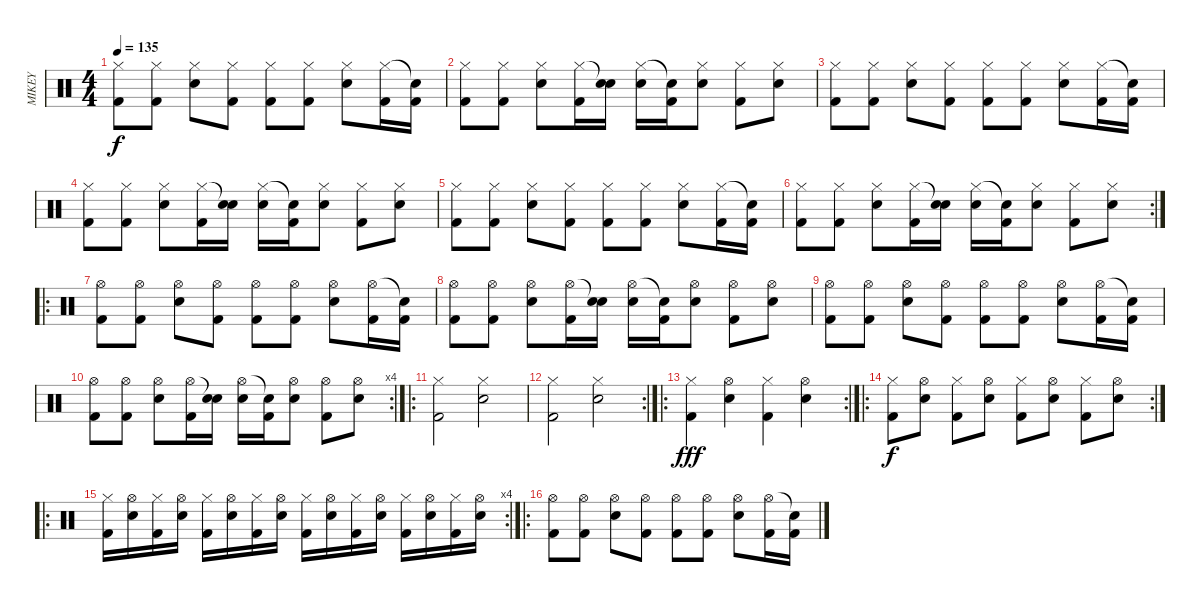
\track ("MIKEY" "MIKEY") {instrument percussion}
\staff {score}
\articulation defaults
\ts (4 4)
\tempo 135
\clef neutral
\ks c
("Hi-Hat (closed)" "Kick (hit) 2").8{dy f} ("Hi-Hat (closed)" "Kick (hit) 2").8 ("Hi-Hat (closed)" "Electric Snare (hit)").8 ("Hi-Hat (closed)" "Kick (hit) 2").8 ("Hi-Hat (closed)" "Kick (hit) 2").8 ("Hi-Hat (closed)" "Kick (hit) 2").8 ("Hi-Hat (closed)" "Electric Snare (hit)").8 ("Hi-Hat (closed)" "Kick (hit) 2").16 ("Snare (hit)"{t} "Kick (hit) 2").16 |
("Hi-Hat (closed)" "Kick (hit) 2").8 ("Hi-Hat (closed)" "Kick (hit) 2").8 ("Hi-Hat (closed)" "Electric Snare (hit)").8 ("Hi-Hat (closed)" "Kick (hit) 2").16 ("Snare (hit)"{t} "Electric Snare (hit)").16 ("Hi-Hat (closed)" "Electric Snare (hit)").16 ("Snare (hit)"{t} "Kick (hit) 2").16 ("Hi-Hat (closed)" "Electric Snare (hit)").8 ("Hi-Hat (closed)" "Kick (hit) 2").8 ("Hi-Hat (closed)" "Electric Snare (hit)").8 |
("Hi-Hat (closed)" "Kick (hit) 2").8 ("Hi-Hat (closed)" "Kick (hit) 2").8 ("Hi-Hat (closed)" "Electric Snare (hit)").8 ("Hi-Hat (closed)" "Kick (hit) 2").8 ("Hi-Hat (closed)" "Kick (hit) 2").8 ("Hi-Hat (closed)" "Kick (hit) 2").8 ("Hi-Hat (closed)" "Electric Snare (hit)").8 ("Hi-Hat (closed)" "Kick (hit) 2").16 ("Snare (hit)"{t} "Kick (hit) 2").16 |
("Hi-Hat (closed)" "Kick (hit) 2").8 ("Hi-Hat (closed)" "Kick (hit) 2").8 ("Hi-Hat (closed)" "Electric Snare (hit)").8 ("Hi-Hat (closed)" "Kick (hit) 2").16 ("Snare (hit)"{t} "Electric Snare (hit)").16 ("Hi-Hat (closed)" "Electric Snare (hit)").16 ("Snare (hit)"{t} "Kick (hit) 2").16 ("Hi-Hat (closed)" "Electric Snare (hit)").8 ("Hi-Hat (closed)" "Kick (hit) 2").8 ("Hi-Hat (closed)" "Electric Snare (hit)").8 |
("Hi-Hat (closed)" "Kick (hit) 2").8 ("Hi-Hat (closed)" "Kick (hit) 2").8 ("Hi-Hat (closed)" "Electric Snare (hit)").8 ("Hi-Hat (closed)" "Kick (hit) 2").8 ("Hi-Hat (closed)" "Kick (hit) 2").8 ("Hi-Hat (closed)" "Kick (hit) 2").8 ("Hi-Hat (closed)" "Electric Snare (hit)").8 ("Hi-Hat (closed)" "Kick (hit) 2").16 ("Snare (hit)"{t} "Kick (hit) 2").16 |
\rc 2
("Hi-Hat (closed)" "Kick (hit) 2").8 ("Hi-Hat (closed)" "Kick (hit) 2").8 ("Hi-Hat (closed)" "Electric Snare (hit)").8 ("Hi-Hat (closed)" "Kick (hit) 2").16 ("Snare (hit)"{t} "Electric Snare (hit)").16 ("Hi-Hat (closed)" "Electric Snare (hit)").16 ("Snare (hit)"{t} "Kick (hit) 2").16 ("Hi-Hat (closed)" "Electric Snare (hit)").8 ("Hi-Hat (closed)" "Kick (hit) 2").8 ("Hi-Hat (closed)" "Electric Snare (hit)").8 |
\ro
("Hi-Hat (open)" "Kick (hit) 2").8 ("Hi-Hat (open)" "Kick (hit) 2").8 ("Hi-Hat (open)" "Electric Snare (hit)").8 ("Hi-Hat (open)" "Kick (hit) 2").8 ("Hi-Hat (open)" "Kick (hit) 2").8 ("Hi-Hat (open)" "Kick (hit) 2").8 ("Hi-Hat (open)" "Electric Snare (hit)").8 ("Hi-Hat (open)" "Kick (hit) 2").16 ("Snare (hit)"{t} "Kick (hit) 2").16 |
("Hi-Hat (open)" "Kick (hit) 2").8 ("Hi-Hat (open)" "Kick (hit) 2").8 ("Hi-Hat (open)" "Electric Snare (hit)").8 ("Hi-Hat (open)" "Kick (hit) 2").16 ("Snare (hit)"{t} "Electric Snare (hit)").16 ("Hi-Hat (open)" "Electric Snare (hit)").16 ("Snare (hit)"{t} "Kick (hit) 2").16 ("Hi-Hat (open)" "Electric Snare (hit)").8 ("Hi-Hat (open)" "Kick (hit) 2").8 ("Hi-Hat (open)" "Electric Snare (hit)").8 |
("Hi-Hat (open)" "Kick (hit) 2").8 ("Hi-Hat (open)" "Kick (hit) 2").8 ("Hi-Hat (open)" "Electric Snare (hit)").8 ("Hi-Hat (open)" "Kick (hit) 2").8 ("Hi-Hat (open)" "Kick (hit) 2").8 ("Hi-Hat (open)" "Kick (hit) 2").8 ("Hi-Hat (open)" "Electric Snare (hit)").8 ("Hi-Hat (open)" "Kick (hit) 2").16 ("Snare (hit)"{t} "Kick (hit) 2").16 |
\rc 4
("Hi-Hat (open)" "Kick (hit) 2").8 ("Hi-Hat (open)" "Kick (hit) 2").8 ("Hi-Hat (open)" "Electric Snare (hit)").8 ("Hi-Hat (open)" "Kick (hit) 2").16 ("Snare (hit)"{t} "Electric Snare (hit)").16 ("Hi-Hat (open)" "Electric Snare (hit)").16 ("Snare (hit)"{t} "Kick (hit) 2").16 ("Hi-Hat (open)" "Electric Snare (hit)").8 ("Hi-Hat (open)" "Kick (hit) 2").8 ("Hi-Hat (open)" "Electric Snare (hit)").8 |
\ro
("Hi-Hat (closed)" "Kick (hit) 2").2 ("Hi-Hat (closed)" "Snare (hit) 2").2 |
\rc 2
("Hi-Hat (closed)" "Kick (hit) 2").2 ("Hi-Hat (closed)" "Snare (hit) 2").2 |
\ro
\rc 2
("Hi-Hat (closed)" "Kick (hit) 2").4{dy fff} ("Hi-Hat (open)" "Snare (hit) 2").4 ("Hi-Hat (closed)" "Kick (hit) 2").4 ("Hi-Hat (open)" "Snare (hit) 2").4 |
\ro
\rc 2
("Hi-Hat (closed)" "Kick (hit) 2").8{dy f} ("Hi-Hat (open)" "Snare (hit) 2").8 ("Hi-Hat (closed)" "Kick (hit) 2").8 ("Hi-Hat (open)" "Snare (hit) 2").8 ("Hi-Hat (closed)" "Kick (hit) 2").8 ("Hi-Hat (open)" "Snare (hit) 2").8 ("Hi-Hat (closed)" "Kick (hit) 2").8 ("Hi-Hat (open)" "Snare (hit) 2").8 |
\ro
\rc 4
("Hi-Hat (closed)" "Kick (hit) 2").16 ("Hi-Hat (open)" "Snare (hit) 2").16 ("Hi-Hat (closed)" "Kick (hit) 2").16 ("Hi-Hat (open)" "Snare (hit) 2").16 ("Hi-Hat (closed)" "Kick (hit) 2").16 ("Hi-Hat (open)" "Snare (hit) 2").16 ("Hi-Hat (closed)" "Kick (hit) 2").16 ("Hi-Hat (open)" "Snare (hit) 2").16 ("Hi-Hat (closed)" "Kick (hit) 2").16 ("Hi-Hat (open)" "Snare (hit) 2").16 ("Hi-Hat (closed)" "Kick (hit) 2").16 ("Hi-Hat (open)" "Snare (hit) 2").16 ("Hi-Hat (closed)" "Kick (hit) 2").16 ("Hi-Hat (open)" "Snare (hit) 2").16 ("Hi-Hat (closed)" "Kick (hit) 2").16 ("Hi-Hat (open)" "Snare (hit) 2").16 |
\ro
("Hi-Hat (open)" "Kick (hit) 2").8 ("Hi-Hat (open)" "Kick (hit) 2").8 ("Hi-Hat (open)" "Electric Snare (hit)").8 ("Hi-Hat (open)" "Kick (hit) 2").8 ("Hi-Hat (open)" "Kick (hit) 2").8 ("Hi-Hat (open)" "Kick (hit) 2").8 ("Hi-Hat (open)" "Electric Snare (hit)").8 ("Hi-Hat (open)" "Kick (hit) 2").16 ("Snare (hit)"{t} "Kick (hit) 2").16
